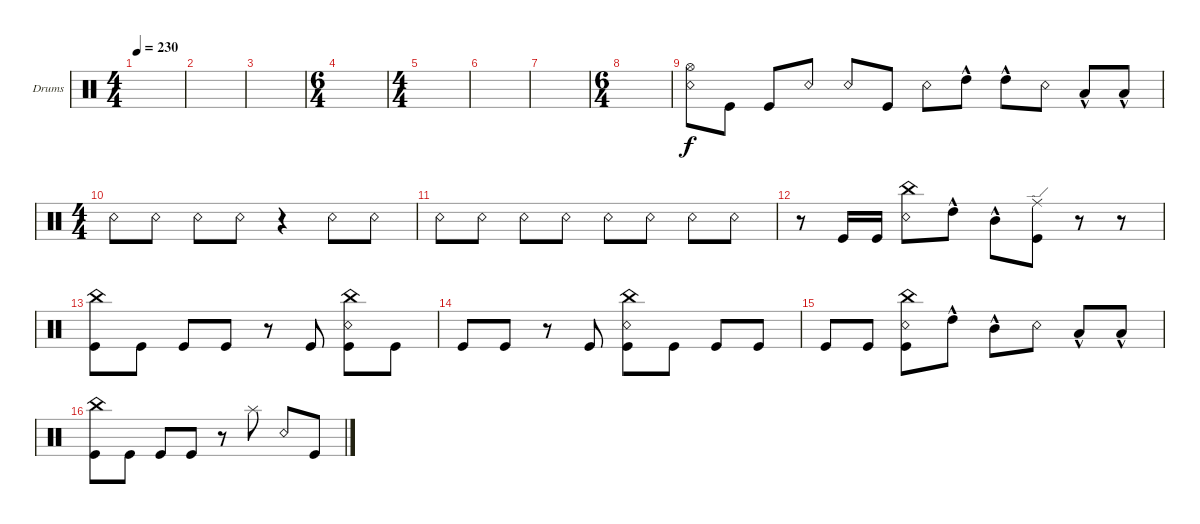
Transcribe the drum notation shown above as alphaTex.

\bracketExtendMode groupsimilarinstruments
\firstSystemTrackNameOrientation horizontal
\otherSystemsTrackNameOrientation horizontal
\track ("Drumkit" "Drums") {instrument percussion}
\staff {score}
\articulation defaults
\ts (4 4)
\tempo 230
\clef neutral
\ks c
|
|
|
\ts (6 4)
|
\ts (4 4)
|
|
|
\ts (6 4)
|
("Snare (rim shot)" "Hi-Hat (open)").8 "Kick (hit)".8 "Kick (hit)".8 "Snare (rim shot)".8 "Snare (rim shot)".8 "Kick (hit)".8 "Snare (rim shot)".8 "High Tom (hit)"{hac}.8 "High Tom (hit)"{hac}.8 "Snare (rim shot)".8 "Low Tom (hit)"{hac}.8 "Low Tom (hit)"{hac}.8 |
\ts (4 4)
"Snare (rim shot)".8 "Snare (rim shot)".8 "Snare (rim shot)".8 "Snare (rim shot)".8 r.4 "Snare (rim shot)".8 "Snare (rim shot)".8 |
"Snare (rim shot)".8 "Snare (rim shot)".8 "Snare (rim shot)".8 "Snare (rim shot)".8 "Snare (rim shot)".8 "Snare (rim shot)".8 "Snare (rim shot)".8 "Snare (rim shot)".8 |
r.8 "Kick (hit)".16 "Kick (hit)".16 ("Snare (rim shot)" "China (hit)").8 "High Tom (hit)"{hac}.8 "Mid Tom (hit)"{hac}.8 ("Kick (hit)" "Ride (edge)").8 r.8 r.8 |
("Kick (hit)" "China (hit)").8 "Kick (hit)".8 "Kick (hit)".8 "Kick (hit)".8 r.8 "Kick (hit)".8 ("Kick (hit)" "Snare (rim shot)" "China (hit)").8 "Kick (hit)".8 |
"Kick (hit)".8 "Kick (hit)".8 r.8 "Kick (hit)".8 ("Kick (hit)" "China (hit)" "Snare (rim shot)").8 "Kick (hit)".8 "Kick (hit)".8 "Kick (hit)".8 |
"Kick (hit)".8 "Kick (hit)".8 ("Kick (hit)" "Snare (rim shot)" "China (hit)").8 "High Tom (hit)"{hac}.8 "Mid Tom (hit)"{hac}.8 "Snare (rim shot)".8 "Low Tom (hit)"{hac}.8 "Low Tom (hit)"{hac}.8 |
("Kick (hit)" "China (hit)").8 "Kick (hit)".8 "Kick (hit)".8 "Kick (hit)".8 r.8 "Splash (hit)".8 "Snare (rim shot)".8 "Kick (hit)".8
